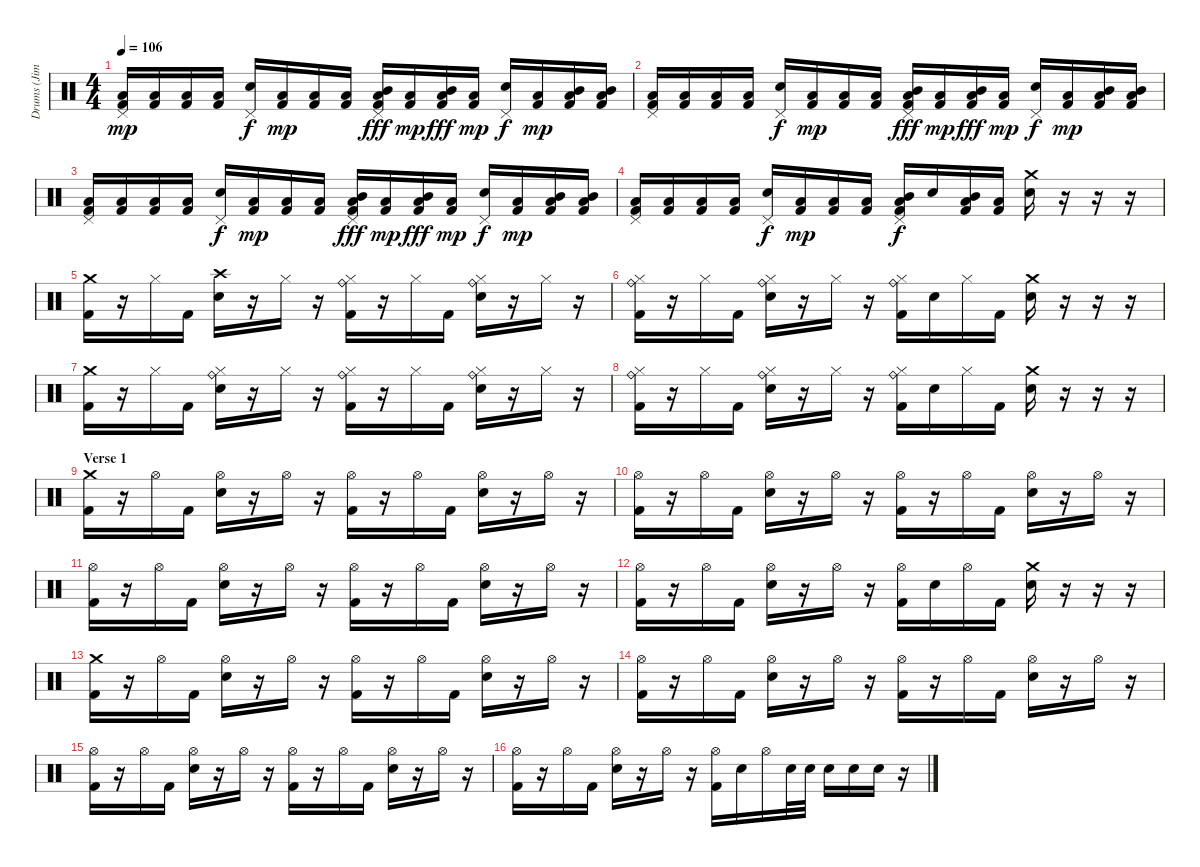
\track ("Drums (Jimmy)" "Drums (Jim") {instrument percussion}
\staff {score}
\articulation defaults
\ts (4 4)
\tempo 106
\clef neutral
\ks c
("Pedal Hi-Hat (hit)" "Low Tom (hit)" "Kick (hit) 2").16{dy mp} ("Low Tom (hit)" "Kick (hit) 2").16 ("Low Tom (hit)" "Kick (hit) 2").16 ("Low Tom (hit)" "Kick (hit) 2").16 ("Pedal Hi-Hat (hit)" "Snare (hit) 2").16{dy f} ("Low Tom (hit)" "Kick (hit) 2").16{dy mp} ("Low Tom (hit)" "Kick (hit) 2").16 ("Low Tom (hit)" "Kick (hit) 2").16 ("Pedal Hi-Hat (hit)" "Mid Tom (hit)" "Low Tom (hit)" "Kick (hit) 2").16{dy fff} ("Low Tom (hit)" "Kick (hit) 2").16{dy mp} ("Mid Tom (hit)" "Low Tom (hit)" "Kick (hit) 2").16{dy fff} ("Low Tom (hit)" "Kick (hit) 2").16{dy mp} ("Pedal Hi-Hat (hit)" "Snare (hit) 2").16{dy f} ("Low Tom (hit)" "Kick (hit) 2").16{dy mp} ("Mid Tom (hit)" "Low Tom (hit)" "Kick (hit) 2").16 ("Mid Tom (hit)" "Low Tom (hit)" "Kick (hit) 2").16 |
("Pedal Hi-Hat (hit)" "Low Tom (hit)" "Kick (hit) 2").16 ("Low Tom (hit)" "Kick (hit) 2").16 ("Low Tom (hit)" "Kick (hit) 2").16 ("Low Tom (hit)" "Kick (hit) 2").16 ("Pedal Hi-Hat (hit)" "Snare (hit) 2").16{dy f} ("Low Tom (hit)" "Kick (hit) 2").16{dy mp} ("Low Tom (hit)" "Kick (hit) 2").16 ("Low Tom (hit)" "Kick (hit) 2").16 ("Pedal Hi-Hat (hit)" "Mid Tom (hit)" "Low Tom (hit)" "Kick (hit) 2").16{dy fff} ("Low Tom (hit)" "Kick (hit) 2").16{dy mp} ("Mid Tom (hit)" "Low Tom (hit)" "Kick (hit) 2").16{dy fff} ("Low Tom (hit)" "Kick (hit) 2").16{dy mp} ("Pedal Hi-Hat (hit)" "Snare (hit) 2").16{dy f} ("Low Tom (hit)" "Kick (hit) 2").16{dy mp} ("Mid Tom (hit)" "Low Tom (hit)" "Kick (hit) 2").16 ("Mid Tom (hit)" "Low Tom (hit)" "Kick (hit) 2").16 |
("Pedal Hi-Hat (hit)" "Low Tom (hit)" "Kick (hit) 2").16 ("Low Tom (hit)" "Kick (hit) 2").16 ("Low Tom (hit)" "Kick (hit) 2").16 ("Low Tom (hit)" "Kick (hit) 2").16 ("Pedal Hi-Hat (hit)" "Snare (hit) 2").16{dy f} ("Low Tom (hit)" "Kick (hit) 2").16{dy mp} ("Low Tom (hit)" "Kick (hit) 2").16 ("Low Tom (hit)" "Kick (hit) 2").16 ("Pedal Hi-Hat (hit)" "Mid Tom (hit)" "Low Tom (hit)" "Kick (hit) 2").16{dy fff} ("Low Tom (hit)" "Kick (hit) 2").16{dy mp} ("Mid Tom (hit)" "Low Tom (hit)" "Kick (hit) 2").16{dy fff} ("Low Tom (hit)" "Kick (hit) 2").16{dy mp} ("Pedal Hi-Hat (hit)" "Snare (hit) 2").16{dy f} ("Low Tom (hit)" "Kick (hit) 2").16{dy mp} ("Mid Tom (hit)" "Low Tom (hit)" "Kick (hit) 2").16 ("Mid Tom (hit)" "Low Tom (hit)" "Kick (hit) 2").16 |
("Pedal Hi-Hat (hit)" "Low Tom (hit)" "Kick (hit) 2").16 ("Low Tom (hit)" "Kick (hit) 2").16 ("Low Tom (hit)" "Kick (hit) 2").16 ("Low Tom (hit)" "Kick (hit) 2").16 ("Pedal Hi-Hat (hit)" "Snare (hit) 2").16{dy f} ("Low Tom (hit)" "Kick (hit) 2").16{dy mp} ("Low Tom (hit)" "Kick (hit) 2").16 ("Low Tom (hit)" "Kick (hit) 2").16 ("Pedal Hi-Hat (hit)" "Mid Tom (hit)" "Low Tom (hit)" "Kick (hit) 2").16{dy f} "Snare (hit) 2".16 ("Mid Tom (hit)" "Low Tom (hit)" "Kick (hit) 2").16 ("Low Tom (hit)" "Kick (hit) 2").16 ("Crash medium (hit)" "Snare (hit) 2").16 r.16 r.16 r.16 |
("Crash medium (hit)" "Kick (hit) 2").16 r.16 "Hi-Hat (closed)".16 "Kick (hit) 2".16 ("Crash high (hit)" "Snare (hit) 2").16 r.16 "Hi-Hat (closed)".16 r.16 ("Ride (bell)" "Hi-Hat (closed)" "Kick (hit) 2").16 r.16 "Hi-Hat (closed)".16 "Kick (hit) 2".16 ("Ride (bell)" "Hi-Hat (closed)" "Snare (hit) 2").16 r.16 "Hi-Hat (closed)".16 r.16 |
("Ride (bell)" "Hi-Hat (closed)" "Kick (hit) 2").16 r.16 "Hi-Hat (closed)".16 "Kick (hit) 2".16 ("Ride (bell)" "Hi-Hat (closed)" "Snare (hit) 2").16 r.16 "Hi-Hat (closed)".16 r.16 ("Ride (bell)" "Hi-Hat (closed)" "Kick (hit) 2").16 "Snare (hit) 2".16 "Hi-Hat (closed)".16 "Kick (hit) 2".16 ("Crash medium (hit)" "Snare (hit) 2").16 r.16 r.16 r.16 |
("Crash medium (hit)" "Kick (hit) 2").16 r.16 "Hi-Hat (closed)".16 "Kick (hit) 2".16 ("Ride (bell)" "Hi-Hat (closed)" "Snare (hit) 2").16 r.16 "Hi-Hat (closed)".16 r.16 ("Ride (bell)" "Hi-Hat (closed)" "Kick (hit) 2").16 r.16 "Hi-Hat (closed)".16 "Kick (hit) 2".16 ("Ride (bell)" "Hi-Hat (closed)" "Snare (hit) 2").16 r.16 "Hi-Hat (closed)".16 r.16 |
("Ride (bell)" "Hi-Hat (closed)" "Kick (hit) 2").16 r.16 "Hi-Hat (closed)".16 "Kick (hit) 2".16 ("Ride (bell)" "Hi-Hat (closed)" "Snare (hit) 2").16 r.16 "Hi-Hat (closed)".16 r.16 ("Ride (bell)" "Hi-Hat (closed)" "Kick (hit) 2").16 "Snare (hit) 2".16 "Hi-Hat (closed)".16 "Kick (hit) 2".16 ("Crash medium (hit)" "Snare (hit) 2").16 r.16 r.16 r.16 |
\section ("" "Verse 1")
("Crash medium (hit)" "Kick (hit) 2").16 r.16 "Hi-Hat (open)".16 "Kick (hit) 2".16 ("Hi-Hat (open)" "Snare (hit) 2").16 r.16 "Hi-Hat (open)".16 r.16 ("Hi-Hat (open)" "Kick (hit) 2").16 r.16 "Hi-Hat (open)".16 "Kick (hit) 2".16 ("Hi-Hat (open)" "Snare (hit) 2").16 r.16 "Hi-Hat (open)".16 r.16 |
("Hi-Hat (open)" "Kick (hit) 2").16 r.16 "Hi-Hat (open)".16 "Kick (hit) 2".16 ("Hi-Hat (open)" "Snare (hit) 2").16 r.16 "Hi-Hat (open)".16 r.16 ("Hi-Hat (open)" "Kick (hit) 2").16 r.16 "Hi-Hat (open)".16 "Kick (hit) 2".16 ("Hi-Hat (open)" "Snare (hit) 2").16 r.16 "Hi-Hat (open)".16 r.16 |
("Hi-Hat (open)" "Kick (hit) 2").16 r.16 "Hi-Hat (open)".16 "Kick (hit) 2".16 ("Hi-Hat (open)" "Snare (hit) 2").16 r.16 "Hi-Hat (open)".16 r.16 ("Hi-Hat (open)" "Kick (hit) 2").16 r.16 "Hi-Hat (open)".16 "Kick (hit) 2".16 ("Hi-Hat (open)" "Snare (hit) 2").16 r.16 "Hi-Hat (open)".16 r.16 |
("Hi-Hat (open)" "Kick (hit) 2").16 r.16 "Hi-Hat (open)".16 "Kick (hit) 2".16 ("Hi-Hat (open)" "Snare (hit) 2").16 r.16 "Hi-Hat (open)".16 r.16 ("Hi-Hat (open)" "Kick (hit) 2").16 "Snare (hit) 2".16 "Hi-Hat (open)".16 "Kick (hit) 2".16 ("Crash medium (hit)" "Snare (hit) 2").16 r.16 r.16 r.16 |
("Crash medium (hit)" "Kick (hit) 2").16 r.16 "Hi-Hat (open)".16 "Kick (hit) 2".16 ("Hi-Hat (open)" "Snare (hit) 2").16 r.16 "Hi-Hat (open)".16 r.16 ("Hi-Hat (open)" "Kick (hit) 2").16 r.16 "Hi-Hat (open)".16 "Kick (hit) 2".16 ("Hi-Hat (open)" "Snare (hit) 2").16 r.16 "Hi-Hat (open)".16 r.16 |
("Hi-Hat (open)" "Kick (hit) 2").16 r.16 "Hi-Hat (open)".16 "Kick (hit) 2".16 ("Hi-Hat (open)" "Snare (hit) 2").16 r.16 "Hi-Hat (open)".16 r.16 ("Hi-Hat (open)" "Kick (hit) 2").16 r.16 "Hi-Hat (open)".16 "Kick (hit) 2".16 ("Hi-Hat (open)" "Snare (hit) 2").16 r.16 "Hi-Hat (open)".16 r.16 |
("Hi-Hat (open)" "Kick (hit) 2").16 r.16 "Hi-Hat (open)".16 "Kick (hit) 2".16 ("Hi-Hat (open)" "Snare (hit) 2").16 r.16 "Hi-Hat (open)".16 r.16 ("Hi-Hat (open)" "Kick (hit) 2").16 r.16 "Hi-Hat (open)".16 "Kick (hit) 2".16 ("Hi-Hat (open)" "Snare (hit) 2").16 r.16 "Hi-Hat (open)".16 r.16 |
("Hi-Hat (open)" "Kick (hit) 2").16 r.16 "Hi-Hat (open)".16 "Kick (hit) 2".16 ("Hi-Hat (open)" "Snare (hit) 2").16 r.16 "Hi-Hat (open)".16 r.16 ("Hi-Hat (open)" "Kick (hit) 2").16 "Snare (hit) 2".16 "Hi-Hat (open)".16 "Snare (hit) 2".32 "Snare (hit) 2".32 "Snare (hit) 2".16 "Snare (hit) 2".16 "Snare (hit) 2".16 r.16
